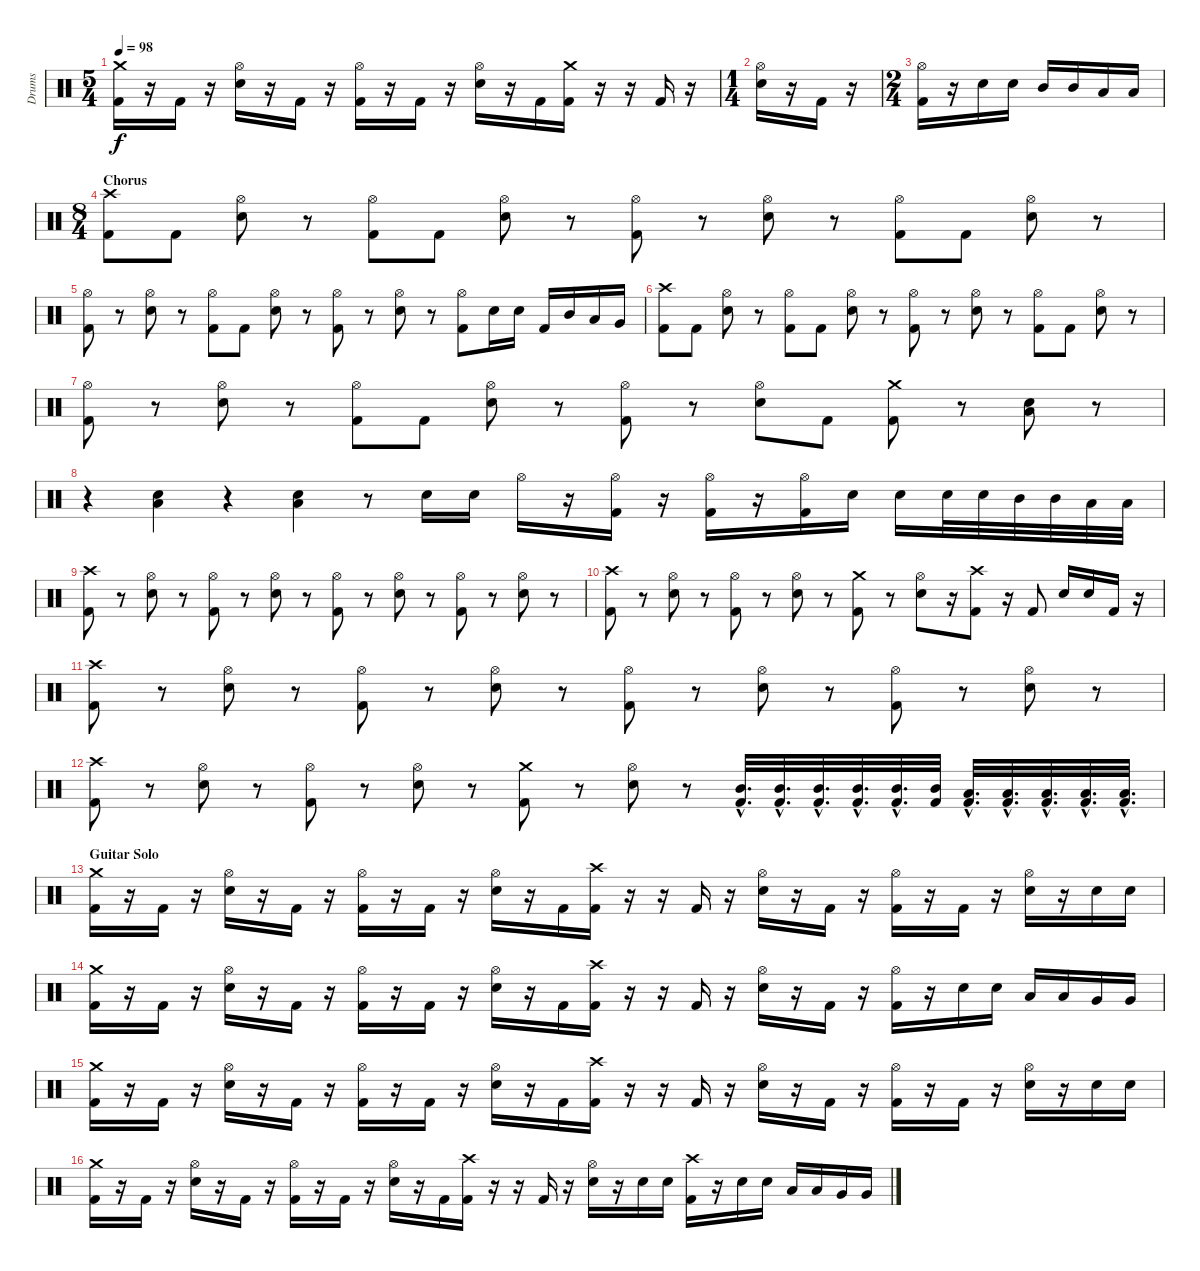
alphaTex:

\track ("Drums" "Drums") {instrument percussion}
\staff {score}
\articulation defaults
\ts (5 4)
\tempo 98
\clef neutral
\ks c
("Crash medium (hit)" "Kick (hit) 2").16{dy f} r.16 "Kick (hit) 2".16 r.16 ("Hi-Hat (open)" "Electric Snare (hit)").16 r.16 "Kick (hit) 2".16 r.16 ("Hi-Hat (open)" "Kick (hit) 2").16 r.16 "Kick (hit) 2".16 r.16 ("Hi-Hat (open)" "Electric Snare (hit)").16 r.16 "Kick (hit) 2".16 ("Crash medium (hit)" "Kick (hit) 2").16 r.16 r.16 "Kick (hit) 2".16 r.16 |
\ts (1 4)
("Hi-Hat (open)" "Electric Snare (hit)").16 r.16 "Kick (hit) 2".16 r.16 |
\ts (2 4)
("Hi-Hat (open)" "Kick (hit) 2").16 r.16 "Electric Snare (hit)".16 "Electric Snare (hit)".16 "Mid Tom (hit)".16 "Mid Tom (hit)".16 "Low Tom (hit)".16 "Low Tom (hit)".16 |
\ts (8 4)
\section ("" "Chorus")
("Crash high (hit)" "Kick (hit) 2").8 "Kick (hit) 2".8 ("Hi-Hat (open)" "Electric Snare (hit)").8 r.8 ("Hi-Hat (open)" "Kick (hit) 2").8 "Kick (hit) 2".8 ("Hi-Hat (open)" "Electric Snare (hit)").8 r.8 ("Hi-Hat (open)" "Kick (hit) 2").8 r.8 ("Hi-Hat (open)" "Electric Snare (hit)").8 r.8 ("Hi-Hat (open)" "Kick (hit) 2").8 "Kick (hit) 2".8 ("Hi-Hat (open)" "Electric Snare (hit)").8 r.8 |
("Hi-Hat (open)" "Kick (hit) 2").8 r.8 ("Hi-Hat (open)" "Electric Snare (hit)").8 r.8 ("Hi-Hat (open)" "Kick (hit) 2").8 "Kick (hit) 2".8 ("Hi-Hat (open)" "Electric Snare (hit)").8 r.8 ("Hi-Hat (open)" "Kick (hit) 2").8 r.8 ("Hi-Hat (open)" "Electric Snare (hit)").8 r.8 ("Hi-Hat (open)" "Kick (hit) 2").8 "Electric Snare (hit)".16 "Electric Snare (hit)".16 "Kick (hit) 2".16 "Mid Tom (hit)".16 "Low Tom (hit)".16 "Very Low Tom (hit)".16 |
("Crash high (hit)" "Kick (hit) 2").8 "Kick (hit) 2".8 ("Hi-Hat (open)" "Electric Snare (hit)").8 r.8 ("Hi-Hat (open)" "Kick (hit) 2").8 "Kick (hit) 2".8 ("Hi-Hat (open)" "Electric Snare (hit)").8 r.8 ("Hi-Hat (open)" "Kick (hit) 2").8 r.8 ("Hi-Hat (open)" "Electric Snare (hit)").8 r.8 ("Hi-Hat (open)" "Kick (hit) 2").8 "Kick (hit) 2".8 ("Hi-Hat (open)" "Electric Snare (hit)").8 r.8 |
("Hi-Hat (open)" "Kick (hit) 2").8 r.8 ("Hi-Hat (open)" "Electric Snare (hit)").8 r.8 ("Hi-Hat (open)" "Kick (hit) 2").8 "Kick (hit) 2".8 ("Hi-Hat (open)" "Electric Snare (hit)").8 r.8 ("Hi-Hat (open)" "Kick (hit) 2").8 r.8 ("Hi-Hat (open)" "Electric Snare (hit)").8 "Kick (hit) 2".8 ("Crash medium (hit)" "Kick (hit) 2").8 r.8 ("Low Floor Tom (hit)" "Electric Snare (hit)").8 r.8 |
r.4 ("Low Floor Tom (hit)" "Electric Snare (hit)").4 r.4 ("Low Floor Tom (hit)" "Electric Snare (hit)").4 r.8 "Electric Snare (hit)".16 "Electric Snare (hit)".16 "Hi-Hat (open)".16 r.16 ("Hi-Hat (open)" "Kick (hit) 2").16 r.16 ("Hi-Hat (open)" "Kick (hit) 2").16 r.16 ("Hi-Hat (open)" "Kick (hit) 2").16 "Electric Snare (hit)".16 "Electric Snare (hit)".16 "Electric Snare (hit)".32 "Electric Snare (hit)".32 "Mid Tom (hit)".32 "Mid Tom (hit)".32 "Low Tom (hit)".32 "Low Tom (hit)".32 |
("Crash high (hit)" "Kick (hit) 2").8 r.8 ("Hi-Hat (open)" "Electric Snare (hit)").8 r.8 ("Hi-Hat (open)" "Kick (hit) 2").8 r.8 ("Hi-Hat (open)" "Electric Snare (hit)").8 r.8 ("Hi-Hat (open)" "Kick (hit) 2").8 r.8 ("Hi-Hat (open)" "Electric Snare (hit)").8 r.8 ("Hi-Hat (open)" "Kick (hit) 2").8 r.8 ("Hi-Hat (open)" "Electric Snare (hit)").8 r.8 |
("Crash high (hit)" "Kick (hit) 2").8 r.8 ("Hi-Hat (open)" "Electric Snare (hit)").8 r.8 ("Hi-Hat (open)" "Kick (hit) 2").8 r.8 ("Hi-Hat (open)" "Electric Snare (hit)").8 r.8 ("Crash medium (hit)" "Kick (hit) 2").8 r.8 ("Hi-Hat (open)" "Electric Snare (hit)").8 r.16 ("Crash high (hit)" "Kick (hit) 2").8 r.16 "Kick (hit) 2".8 "Electric Snare (hit)".16 "Electric Snare (hit)".16 "Kick (hit) 2".16 r.16 |
("Crash high (hit)" "Kick (hit) 2").8 r.8 ("Hi-Hat (open)" "Electric Snare (hit)").8 r.8 ("Hi-Hat (open)" "Kick (hit) 2").8 r.8 ("Hi-Hat (open)" "Electric Snare (hit)").8 r.8 ("Hi-Hat (open)" "Kick (hit) 2").8 r.8 ("Hi-Hat (open)" "Electric Snare (hit)").8 r.8 ("Hi-Hat (open)" "Kick (hit) 2").8 r.8 ("Hi-Hat (open)" "Electric Snare (hit)").8 r.8 |
("Crash high (hit)" "Kick (hit) 2").8 r.8 ("Hi-Hat (open)" "Electric Snare (hit)").8 r.8 ("Hi-Hat (open)" "Kick (hit) 2").8 r.8 ("Hi-Hat (open)" "Electric Snare (hit)").8 r.8 ("Crash medium (hit)" "Kick (hit) 2").8 r.8 ("Hi-Hat (open)" "Electric Snare (hit)").8 r.8 ("Mid Tom (hit)"{hac} "Kick (hit) 2"{hac}).32{d} ("Mid Tom (hit)"{hac} "Kick (hit) 2"{hac}).32{d} ("Mid Tom (hit)"{hac} "Kick (hit) 2"{hac}).32{d} ("Mid Tom (hit)"{hac} "Kick (hit) 2"{hac}).32{d} ("Mid Tom (hit)"{hac} "Kick (hit) 2"{hac}).32{d} ("Mid Tom (hit)" "Kick (hit) 2").32 ("Low Tom (hit)"{hac} "Kick (hit) 2"{hac}).32{d} ("Low Tom (hit)"{hac} "Kick (hit) 2"{hac}).32{d} ("Low Tom (hit)"{hac} "Kick (hit) 2"{hac}).32{d} ("Low Tom (hit)"{hac} "Kick (hit) 2"{hac}).32{d} ("Low Tom (hit)"{hac} "Kick (hit) 2"{hac}).32{d} |
\section ("" "Guitar Solo")
("Crash medium (hit)" "Kick (hit) 2").16 r.16 "Kick (hit) 2".16 r.16 ("Hi-Hat (open)" "Electric Snare (hit)").16 r.16 "Kick (hit) 2".16 r.16 ("Hi-Hat (open)" "Kick (hit) 2").16 r.16 "Kick (hit) 2".16 r.16 ("Hi-Hat (open)" "Electric Snare (hit)").16 r.16 "Kick (hit) 2".16 ("Crash high (hit)" "Kick (hit) 2").16 r.16 r.16 "Kick (hit) 2".16 r.16 ("Hi-Hat (open)" "Electric Snare (hit)").16 r.16 "Kick (hit) 2".16 r.16 ("Hi-Hat (open)" "Kick (hit) 2").16 r.16 "Kick (hit) 2".16 r.16 ("Hi-Hat (open)" "Electric Snare (hit)").16 r.16 "Electric Snare (hit)".16 "Electric Snare (hit)".16 |
("Crash medium (hit)" "Kick (hit) 2").16 r.16 "Kick (hit) 2".16 r.16 ("Hi-Hat (open)" "Electric Snare (hit)").16 r.16 "Kick (hit) 2".16 r.16 ("Hi-Hat (open)" "Kick (hit) 2").16 r.16 "Kick (hit) 2".16 r.16 ("Hi-Hat (open)" "Electric Snare (hit)").16 r.16 "Kick (hit) 2".16 ("Crash high (hit)" "Kick (hit) 2").16 r.16 r.16 "Kick (hit) 2".16 r.16 ("Hi-Hat (open)" "Electric Snare (hit)").16 r.16 "Kick (hit) 2".16 r.16 ("Hi-Hat (open)" "Kick (hit) 2").16 r.16 "Electric Snare (hit)".16 "Electric Snare (hit)".16 "Low Tom (hit)".16 "Low Tom (hit)".16 "Very Low Tom (hit)".16 "Very Low Tom (hit)".16 |
("Crash medium (hit)" "Kick (hit) 2").16 r.16 "Kick (hit) 2".16 r.16 ("Hi-Hat (open)" "Electric Snare (hit)").16 r.16 "Kick (hit) 2".16 r.16 ("Hi-Hat (open)" "Kick (hit) 2").16 r.16 "Kick (hit) 2".16 r.16 ("Hi-Hat (open)" "Electric Snare (hit)").16 r.16 "Kick (hit) 2".16 ("Crash high (hit)" "Kick (hit) 2").16 r.16 r.16 "Kick (hit) 2".16 r.16 ("Hi-Hat (open)" "Electric Snare (hit)").16 r.16 "Kick (hit) 2".16 r.16 ("Hi-Hat (open)" "Kick (hit) 2").16 r.16 "Kick (hit) 2".16 r.16 ("Hi-Hat (open)" "Electric Snare (hit)").16 r.16 "Electric Snare (hit)".16 "Electric Snare (hit)".16 |
("Crash medium (hit)" "Kick (hit) 2").16 r.16 "Kick (hit) 2".16 r.16 ("Hi-Hat (open)" "Electric Snare (hit)").16 r.16 "Kick (hit) 2".16 r.16 ("Hi-Hat (open)" "Kick (hit) 2").16 r.16 "Kick (hit) 2".16 r.16 ("Hi-Hat (open)" "Electric Snare (hit)").16 r.16 "Kick (hit) 2".16 ("Crash high (hit)" "Kick (hit) 2").16 r.16 r.16 "Kick (hit) 2".16 r.16 ("Hi-Hat (open)" "Electric Snare (hit)").16 r.16 "Electric Snare (hit)".16 "Electric Snare (hit)".16 ("Crash high (hit)" "Kick (hit) 2").16 r.16 "Electric Snare (hit)".16 "Electric Snare (hit)".16 "Low Tom (hit)".16 "Low Tom (hit)".16 "Very Low Tom (hit)".16 "Very Low Tom (hit)".16
